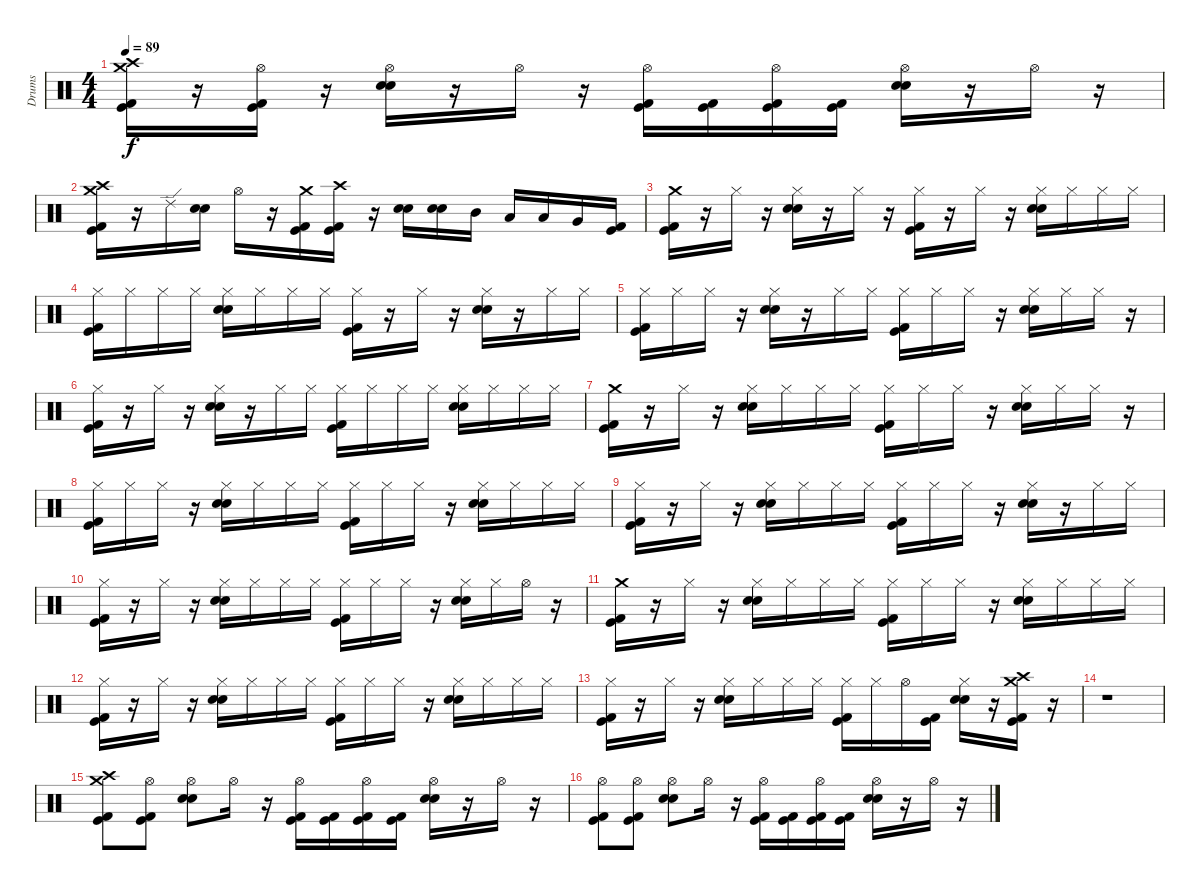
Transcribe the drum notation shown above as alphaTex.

\track ("Drums" "Drums") {instrument percussion}
\staff {score}
\articulation defaults
\ts (4 4)
\tempo 89
\clef neutral
\ks c
("Crash high (hit)" "Crash medium (hit)" "Kick (hit) 2" "Kick (hit)").16{dy f} r.16 ("Hi-Hat (open)" "Kick (hit) 2" "Kick (hit)").16 r.16 ("Hi-Hat (open)" "Electric Snare (hit)" "Snare (hit) 2").16 r.16 "Hi-Hat (open)".16 r.16 ("Hi-Hat (open)" "Kick (hit) 2" "Kick (hit)").16 ("Kick (hit) 2" "Kick (hit)").16 ("Hi-Hat (open)" "Kick (hit) 2" "Kick (hit)").16 ("Kick (hit) 2" "Kick (hit)").16 ("Hi-Hat (open)" "Electric Snare (hit)" "Snare (hit) 2").16 r.16 "Hi-Hat (open)".16 r.16 |
("Crash high (hit)" "Crash medium (hit)" "Kick (hit) 2" "Kick (hit)").16 r.16 "Ride (edge) 2".16 ("Electric Snare (hit)" "Snare (hit) 2").16 "Hi-Hat (open)".16 r.16 ("Crash medium (hit)" "Kick (hit) 2" "Kick (hit)").16 ("Crash high (hit)" "Kick (hit) 2" "Kick (hit)").16 r.16 ("Electric Snare (hit)" "Snare (hit) 2").16 ("Electric Snare (hit)" "Snare (hit) 2").16 "Mid Tom (hit)".16 "Low Tom (hit)".16 "Low Tom (hit)".16 "Very Low Tom (hit)".16 ("Kick (hit) 2" "Kick (hit)").16 |
("Crash medium (hit)" "Kick (hit) 2" "Kick (hit)").16 r.16 "Hi-Hat (closed)".16 r.16 ("Hi-Hat (closed)" "Electric Snare (hit)" "Snare (hit) 2").16 r.16 "Hi-Hat (closed)".16 r.16 ("Hi-Hat (closed)" "Kick (hit) 2" "Kick (hit)").16 r.16 "Hi-Hat (closed)".16 r.16 ("Hi-Hat (closed)" "Electric Snare (hit)" "Snare (hit) 2").16 "Hi-Hat (closed)".16 "Hi-Hat (closed)".16 "Hi-Hat (closed)".16 |
("Hi-Hat (closed)" "Kick (hit) 2" "Kick (hit)").16 "Hi-Hat (closed)".16 "Hi-Hat (closed)".16 "Hi-Hat (closed)".16 ("Hi-Hat (closed)" "Electric Snare (hit)" "Snare (hit) 2").16 "Hi-Hat (closed)".16 "Hi-Hat (closed)".16 "Hi-Hat (closed)".16 ("Hi-Hat (closed)" "Kick (hit) 2" "Kick (hit)").16 r.16 "Hi-Hat (closed)".16 r.16 ("Hi-Hat (closed)" "Electric Snare (hit)" "Snare (hit) 2").16 r.16 "Hi-Hat (closed)".16 "Hi-Hat (closed)".16 |
("Kick (hit) 2" "Kick (hit)" "Hi-Hat (closed)").16 "Hi-Hat (closed)".16 "Hi-Hat (closed)".16 r.16 ("Hi-Hat (closed)" "Electric Snare (hit)" "Snare (hit) 2").16 r.16 "Hi-Hat (closed)".16 "Hi-Hat (closed)".16 ("Hi-Hat (closed)" "Kick (hit) 2" "Kick (hit)").16 "Hi-Hat (closed)".16 "Hi-Hat (closed)".16 r.16 ("Hi-Hat (closed)" "Snare (hit) 2" "Electric Snare (hit)").16 "Hi-Hat (closed)".16 "Hi-Hat (closed)".16 r.16 |
("Hi-Hat (closed)" "Kick (hit) 2" "Kick (hit)").16 r.16 "Hi-Hat (closed)".16 r.16 ("Electric Snare (hit)" "Snare (hit) 2" "Hi-Hat (closed)").16 r.16 "Hi-Hat (closed)".16 "Hi-Hat (closed)".16 ("Kick (hit) 2" "Kick (hit)" "Hi-Hat (closed)").16 "Hi-Hat (closed)".16 "Hi-Hat (closed)".16 "Hi-Hat (closed)".16 ("Electric Snare (hit)" "Snare (hit) 2" "Hi-Hat (closed)").16 "Hi-Hat (closed)".16 "Hi-Hat (closed)".16 "Hi-Hat (closed)".16 |
("Crash medium (hit)" "Kick (hit) 2" "Kick (hit)").16 r.16 "Hi-Hat (closed)".16 r.16 ("Hi-Hat (closed)" "Electric Snare (hit)" "Snare (hit) 2").16 "Hi-Hat (closed)".16 "Hi-Hat (closed)".16 "Hi-Hat (closed)".16 ("Kick (hit) 2" "Kick (hit)" "Hi-Hat (closed)").16 "Hi-Hat (closed)".16 "Hi-Hat (closed)".16 r.16 ("Electric Snare (hit)" "Snare (hit) 2" "Hi-Hat (closed)").16 "Hi-Hat (closed)".16 "Hi-Hat (closed)".16 r.16 |
("Hi-Hat (closed)" "Kick (hit) 2" "Kick (hit)").16 "Hi-Hat (closed)".16 "Hi-Hat (closed)".16 r.16 ("Hi-Hat (closed)" "Electric Snare (hit)" "Snare (hit) 2").16 "Hi-Hat (closed)".16 "Hi-Hat (closed)".16 "Hi-Hat (closed)".16 ("Kick (hit) 2" "Kick (hit)" "Hi-Hat (closed)").16 "Hi-Hat (closed)".16 "Hi-Hat (closed)".16 r.16 ("Snare (hit) 2" "Electric Snare (hit)" "Hi-Hat (closed)").16 "Hi-Hat (closed)".16 "Hi-Hat (closed)".16 "Hi-Hat (closed)".16 |
("Hi-Hat (closed)" "Kick (hit) 2" "Kick (hit)").16 r.16 "Hi-Hat (closed)".16 r.16 ("Hi-Hat (closed)" "Electric Snare (hit)" "Snare (hit) 2").16 "Hi-Hat (closed)".16 "Hi-Hat (closed)".16 "Hi-Hat (closed)".16 ("Hi-Hat (closed)" "Kick (hit) 2" "Kick (hit)").16 "Hi-Hat (closed)".16 "Hi-Hat (closed)".16 r.16 ("Hi-Hat (closed)" "Electric Snare (hit)" "Snare (hit) 2").16 r.16 "Hi-Hat (closed)".16 "Hi-Hat (closed)".16 |
("Hi-Hat (closed)" "Kick (hit) 2" "Kick (hit)").16 r.16 "Hi-Hat (closed)".16 r.16 ("Electric Snare (hit)" "Snare (hit) 2" "Hi-Hat (closed)").16 "Hi-Hat (closed)".16 "Hi-Hat (closed)".16 "Hi-Hat (closed)".16 ("Kick (hit) 2" "Kick (hit)" "Hi-Hat (closed)").16 "Hi-Hat (closed)".16 "Hi-Hat (closed)".16 r.16 ("Electric Snare (hit)" "Snare (hit) 2" "Hi-Hat (closed)").16 "Hi-Hat (closed)".16 "Hi-Hat (open)".16 r.16 |
("Crash medium (hit)" "Kick (hit) 2" "Kick (hit)").16 r.16 "Hi-Hat (closed)".16 r.16 ("Electric Snare (hit)" "Snare (hit) 2" "Hi-Hat (closed)").16 "Hi-Hat (closed)".16 "Hi-Hat (closed)".16 "Hi-Hat (closed)".16 ("Kick (hit) 2" "Kick (hit)" "Hi-Hat (closed)").16 "Hi-Hat (closed)".16 "Hi-Hat (closed)".16 r.16 ("Electric Snare (hit)" "Snare (hit) 2" "Hi-Hat (closed)").16 "Hi-Hat (closed)".16 "Hi-Hat (closed)".16 "Hi-Hat (closed)".16 |
("Hi-Hat (closed)" "Kick (hit) 2" "Kick (hit)").16 r.16 "Hi-Hat (closed)".16 r.16 ("Hi-Hat (closed)" "Electric Snare (hit)" "Snare (hit) 2").16 "Hi-Hat (closed)".16 "Hi-Hat (closed)".16 "Hi-Hat (closed)".16 ("Hi-Hat (closed)" "Kick (hit) 2" "Kick (hit)").16 "Hi-Hat (closed)".16 "Hi-Hat (closed)".16 r.16 ("Hi-Hat (closed)" "Electric Snare (hit)" "Snare (hit) 2").16 "Hi-Hat (closed)".16 "Hi-Hat (closed)".16 "Hi-Hat (closed)".16 |
("Hi-Hat (closed)" "Kick (hit) 2" "Kick (hit)").16 r.16 "Hi-Hat (closed)".16 r.16 ("Electric Snare (hit)" "Snare (hit) 2" "Hi-Hat (closed)").16 "Hi-Hat (closed)".16 "Hi-Hat (closed)".16 "Hi-Hat (closed)".16 ("Kick (hit) 2" "Kick (hit)" "Hi-Hat (closed)").16 "Hi-Hat (closed)".16 "Hi-Hat (open)".16 ("Kick (hit) 2" "Kick (hit)").16 ("Electric Snare (hit)" "Snare (hit) 2" "Hi-Hat (closed)").16 r.16 ("Kick (hit) 2" "Kick (hit)" "Crash high (hit)" "Crash medium (hit)").16 r.16 |
r.1 |
("Crash medium (hit)" "Crash high (hit)" "Kick (hit) 2" "Kick (hit)").8 ("Hi-Hat (open)" "Kick (hit) 2" "Kick (hit)").8 ("Hi-Hat (open)" "Electric Snare (hit)" "Snare (hit) 2").8 "Hi-Hat (open)".16 r.16 ("Hi-Hat (open)" "Kick (hit) 2" "Kick (hit)").16 ("Kick (hit) 2" "Kick (hit)").16 ("Hi-Hat (open)" "Kick (hit) 2" "Kick (hit)").16 ("Kick (hit) 2" "Kick (hit)").16 ("Hi-Hat (open)" "Electric Snare (hit)" "Snare (hit) 2").16 r.16 "Hi-Hat (open)".16 r.16 |
("Hi-Hat (open)" "Kick (hit) 2" "Kick (hit)").8 ("Hi-Hat (open)" "Kick (hit) 2" "Kick (hit)").8 ("Hi-Hat (open)" "Electric Snare (hit)" "Snare (hit) 2").8 "Hi-Hat (open)".16 r.16 ("Hi-Hat (open)" "Kick (hit) 2" "Kick (hit)").16 ("Kick (hit) 2" "Kick (hit)").16 ("Hi-Hat (open)" "Kick (hit) 2" "Kick (hit)").16 ("Kick (hit) 2" "Kick (hit)").16 ("Hi-Hat (open)" "Electric Snare (hit)" "Snare (hit) 2").16 r.16 "Hi-Hat (open)".16 r.16
